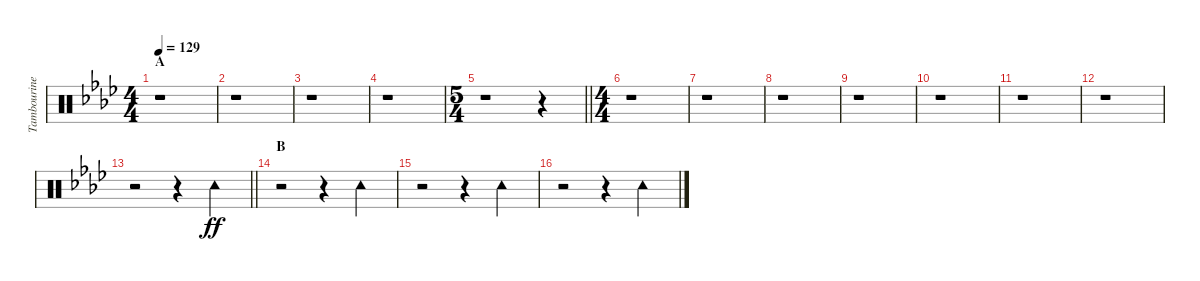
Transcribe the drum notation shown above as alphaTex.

\track ("Tambourine" "Tambourine") {instrument percussion}
\staff {score}
\articulation defaults
\ts (4 4)
\section ("" "A")
\tempo 129
\clef neutral
\ks ab
r.1{dy ff} |
r.1 |
r.1 |
r.1 |
\ts (5 4)
\barLineRight lightlight
r.1 r.4 |
\ts (4 4)
r.1 |
r.1 |
r.1 |
r.1 |
r.1 |
r.1 |
r.1 |
\barLineRight lightlight
r.2 r.4 "Tambourine (hit)".4 |
\section ("" "B")
r.2 r.4 "Tambourine (hit)".4 |
r.2 r.4 "Tambourine (hit)".4 |
r.2 r.4 "Tambourine (hit)".4
